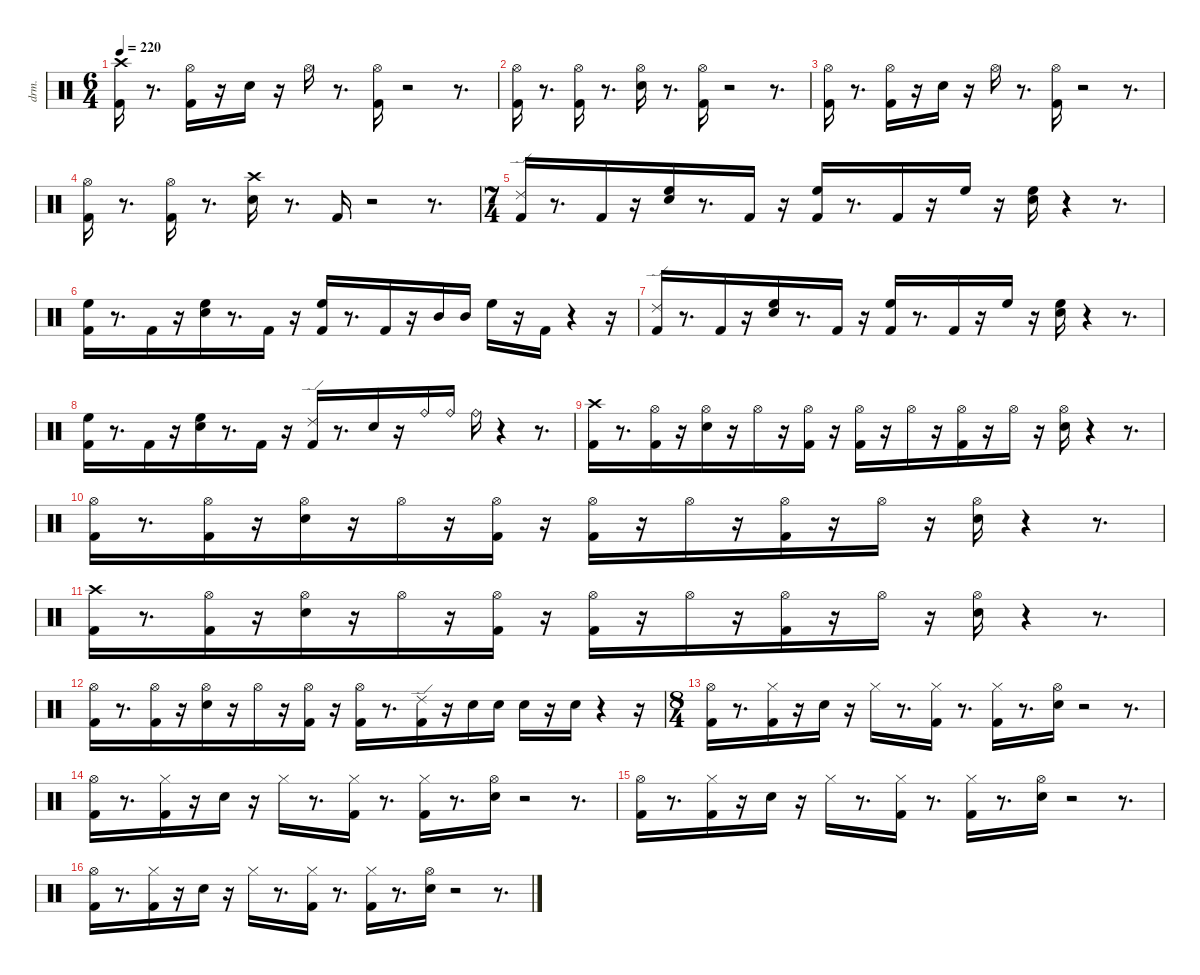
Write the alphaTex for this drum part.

\defaultSystemsLayout 4
\hideDynamics
\bracketExtendMode nobrackets
\otherSystemsTrackNameOrientation horizontal
\track ("EZdrummer 3" "drm.") {instrument percussion}
\staff {score}
\articulation defaults
\ts (6 4)
\tempo 220
\clef neutral
\ks c
("Kick (hit) 2" "Crash high (hit)"{acc #}).16{dy fff beam Down} r.8{d beam Down} ("Kick (hit) 2" "Hi-Hat (open)"{acc #}).16{dy ff beam Down} r.16{beam Down} "Snare (hit) 2".16{beam Down} r.16{beam Down} "Hi-Hat (open)"{acc #}.16{beam Down} r.8{d beam Down} ("Kick (hit) 2" "Hi-Hat (open)"{acc #}).16{beam Down} r.2{beam Down} r.8{d beam Down} |
("Kick (hit) 2" "Hi-Hat (open)"{acc #}).16{beam Down} r.8{d beam Down} ("Kick (hit) 2" "Hi-Hat (open)"{acc #}).16{beam Down} r.8{d beam Down} ("Snare (hit) 2" "Hi-Hat (open)"{acc #}).16{beam Down} r.8{d beam Down} ("Kick (hit) 2" "Hi-Hat (open)"{acc #}).16{dy mf beam Down} r.2{beam Down} r.8{d beam Down} |
("Kick (hit) 2" "Hi-Hat (open)"{acc #}).16{dy fff beam Down} r.8{d beam Down} ("Kick (hit) 2" "Hi-Hat (open)"{acc #}).16{dy ff beam Down} r.16{beam Down} "Snare (hit) 2".16{beam Down} r.16{beam Down} "Hi-Hat (open)"{acc #}.16{beam Down} r.8{d beam Down} ("Kick (hit) 2" "Hi-Hat (open)"{acc #}).16{beam Down} r.2{beam Down} r.8{d beam Down} |
("Kick (hit) 2" "Hi-Hat (open)"{acc #}).16{beam Down} r.8{d beam Down} ("Kick (hit) 2" "Hi-Hat (open)"{acc #}).16{beam Down} r.8{d beam Down} ("Snare (hit) 2" "Crash high (hit)"{acc #}).16{beam Down} r.8{d beam Down} "Kick (hit) 2".16{dy mf beam Up} r.2{beam Up} r.8{d beam Up} |
\ts (7 4)
\beaming (8 6 4 4)
("Kick (hit) 2" "Ride (edge) 2").16{dy ff beam Up} r.8{d beam Up} "Kick (hit) 2".16{dy f beam Up} r.16{beam Up} ("Snare (hit) 2" "High Floor Tom (hit)").16{dy ff beam Down} r.8{d beam Down} "Kick (hit) 2".16{dy f beam Up} r.16{beam Up} ("Kick (hit) 2" "High Floor Tom (hit)").16{dy ff beam Up} r.8{d beam Up} "Kick (hit) 2".16{dy f beam Up} r.16{beam Up} "High Floor Tom (hit)".16{dy p beam Down} r.16{beam Down} ("Snare (hit) 2" "High Floor Tom (hit)").16{dy ff beam Down} r.4{beam Down} r.8{d beam Down} |
("Kick (hit) 2" "High Floor Tom (hit)").16{beam Down} r.8{d beam Down} "Kick (hit) 2".16{dy f beam Up} r.16{beam Up} ("Snare (hit) 2" "High Floor Tom (hit)").16{dy ff beam Down} r.8{d beam Down} "Kick (hit) 2".16{dy f beam Up} r.16{beam Up} ("Kick (hit) 2" "High Floor Tom (hit)").16{dy ff beam Up} r.8{d beam Up} "Kick (hit) 2".16{dy f beam Up} r.16{beam Up} "Mid Tom (hit)".16{dy ff beam Up} "Mid Tom (hit)".16{dy mp beam Up} "High Floor Tom (hit)".16{dy ff beam Down} r.16{beam Down} "Kick (hit) 2".16{beam Up} r.4{beam Up} r.16{beam Up} |
("Kick (hit) 2" "Ride (edge) 2").16{beam Up} r.8{d beam Up} "Kick (hit) 2".16{dy f beam Up} r.16{beam Up} ("Snare (hit) 2" "High Floor Tom (hit)").16{dy ff beam Down} r.8{d beam Down} "Kick (hit) 2".16{dy f beam Up} r.16{beam Up} ("Kick (hit) 2" "High Floor Tom (hit)").16{dy ff beam Up} r.8{d beam Up} "Kick (hit) 2".16{dy f beam Up} r.16{beam Up} "High Floor Tom (hit)".16{dy mp beam Down} r.16{beam Down} ("Snare (hit) 2" "High Floor Tom (hit)").16{dy ff beam Down} r.4{beam Down} r.8{d beam Down} |
("Kick (hit) 2" "High Floor Tom (hit)").16{beam Down} r.8{d beam Down} "Kick (hit) 2".16{dy f beam Up} r.16{beam Up} ("Snare (hit) 2" "High Floor Tom (hit)").16{dy ff beam Down} r.8{d beam Down} "Kick (hit) 2".16{dy f beam Up} r.16{beam Up} ("Kick (hit) 2" "Ride (edge) 2").16{dy ff beam Up} r.8{d beam Up} "Snare (hit) 2".16{dy fff beam Down} r.16{beam Down} "Ride (bell)".16{dy mf beam Down} "Ride (bell)".16{dy mp beam Down} "Ride (bell)".16{dy ff beam Down} r.4{beam Down} r.8{d beam Down} |
("Kick (hit) 2" "Crash high (hit)"{acc #}).16{beam Down} r.8{d beam Down} ("Kick (hit) 2" "Hi-Hat (open)"{acc #}).16{dy f beam Down} r.16{beam Down} ("Snare (hit) 2" "Hi-Hat (open)"{acc #}).16{dy ff beam Down} r.16{beam Down} "Hi-Hat (open)"{acc #}.16{beam Down} r.16{beam Down} ("Kick (hit) 2" "Hi-Hat (open)"{acc #}).16{dy f beam Down} r.16{beam Down} ("Kick (hit) 2" "Hi-Hat (open)"{acc #}).16{dy ff beam Down} r.16{beam Down} "Hi-Hat (open)"{acc #}.16{dy pp beam Down} r.16{beam Down} ("Kick (hit) 2" "Hi-Hat (open)"{acc #}).16{dy f beam Down} r.16{beam Down} "Hi-Hat (open)"{acc #}.16{dy pp beam Down} r.16{beam Down} ("Snare (hit) 2" "Hi-Hat (open)"{acc #}).16{dy ff beam Down} r.4{beam Down} r.8{d beam Down} |
("Kick (hit) 2" "Hi-Hat (open)"{acc #}).16{beam Down} r.8{d beam Down} ("Kick (hit) 2" "Hi-Hat (open)"{acc #}).16{dy f beam Down} r.16{beam Down} ("Snare (hit) 2" "Hi-Hat (open)"{acc #}).16{dy ff beam Down} r.16{beam Down} "Hi-Hat (open)"{acc #}.16{beam Down} r.16{beam Down} ("Kick (hit) 2" "Hi-Hat (open)"{acc #}).16{dy f beam Down} r.16{beam Down} ("Kick (hit) 2" "Hi-Hat (open)"{acc #}).16{dy ff beam Down} r.16{beam Down} "Hi-Hat (open)"{acc #}.16{dy pp beam Down} r.16{beam Down} ("Kick (hit) 2" "Hi-Hat (open)"{acc #}).16{dy f beam Down} r.16{beam Down} "Hi-Hat (open)"{acc #}.16{dy pp beam Down} r.16{beam Down} ("Snare (hit) 2" "Hi-Hat (open)"{acc #}).16{dy ff beam Down} r.4{beam Down} r.8{d beam Down} |
("Kick (hit) 2" "Crash high (hit)"{acc #}).16{beam Down} r.8{d beam Down} ("Kick (hit) 2" "Hi-Hat (open)"{acc #}).16{dy f beam Down} r.16{beam Down} ("Snare (hit) 2" "Hi-Hat (open)"{acc #}).16{dy ff beam Down} r.16{beam Down} "Hi-Hat (open)"{acc #}.16{beam Down} r.16{beam Down} ("Kick (hit) 2" "Hi-Hat (open)"{acc #}).16{dy f beam Down} r.16{beam Down} ("Kick (hit) 2" "Hi-Hat (open)"{acc #}).16{dy ff beam Down} r.16{beam Down} "Hi-Hat (open)"{acc #}.16{dy pp beam Down} r.16{beam Down} ("Kick (hit) 2" "Hi-Hat (open)"{acc #}).16{dy f beam Down} r.16{beam Down} "Hi-Hat (open)"{acc #}.16{dy pp beam Down} r.16{beam Down} ("Snare (hit) 2" "Hi-Hat (open)"{acc #}).16{dy ff beam Down} r.4{beam Down} r.8{d beam Down} |
("Kick (hit) 2" "Hi-Hat (open)"{acc #}).16{beam Down} r.8{d beam Down} ("Kick (hit) 2" "Hi-Hat (open)"{acc #}).16{dy f beam Down} r.16{beam Down} ("Snare (hit) 2" "Hi-Hat (open)"{acc #}).16{dy ff beam Down} r.16{beam Down} "Hi-Hat (open)"{acc #}.16{beam Down} r.16{beam Down} ("Kick (hit) 2" "Hi-Hat (open)"{acc #}).16{dy f beam Down} r.16{beam Down} ("Kick (hit) 2" "Hi-Hat (open)"{acc #}).16{dy ff beam Down} r.8{d beam Down} ("Kick (hit) 2" "Ride (edge) 2").16{dy fff beam Up} r.16{beam Up} "Snare (hit) 2".16{dy mp beam Down} "Snare (hit) 2".16{dy pp beam Down} "Snare (hit) 2".16{dy f beam Down} r.16{beam Down} "Snare (hit) 2".16{dy fff beam Down} r.4{beam Down} r.16{beam Down} |
\ts (8 4)
\beaming (8 4 4 4 4)
("Kick (hit) 2" "Hi-Hat (open)"{acc #}).16{beam Down} r.8{d beam Down} ("Kick (hit) 2" "Hi-Hat (closed)"{acc #}).16{dy f beam Down} r.16{beam Down} "Snare (hit) 2".16{dy ff beam Down} r.16{beam Down} "Hi-Hat (closed)"{acc #}.16{beam Down} r.8{d beam Down} ("Kick (hit) 2" "Hi-Hat (closed)"{acc #}).16{beam Down} r.8{d beam Down} ("Kick (hit) 2" "Hi-Hat (closed)"{acc #}).16{dy f beam Down} r.8{d beam Down} ("Snare (hit) 2" "Hi-Hat (open)"{acc #}).16{dy ff beam Down} r.2{beam Down} r.8{d beam Down} |
("Kick (hit) 2" "Hi-Hat (open)"{acc #}).16{dy fff beam Down} r.8{d beam Down} ("Kick (hit) 2" "Hi-Hat (closed)"{acc #}).16{dy f beam Down} r.16{beam Down} "Snare (hit) 2".16{dy ff beam Down} r.16{beam Down} "Hi-Hat (closed)"{acc #}.16{beam Down} r.8{d beam Down} ("Kick (hit) 2" "Hi-Hat (closed)"{acc #}).16{beam Down} r.8{d beam Down} ("Kick (hit) 2" "Hi-Hat (closed)"{acc #}).16{dy f beam Down} r.8{d beam Down} ("Snare (hit) 2" "Hi-Hat (open)"{acc #}).16{dy ff beam Down} r.2{beam Down} r.8{d beam Down} |
("Kick (hit) 2" "Hi-Hat (open)"{acc #}).16{dy fff beam Down} r.8{d beam Down} ("Kick (hit) 2" "Hi-Hat (closed)"{acc #}).16{dy f beam Down} r.16{beam Down} "Snare (hit) 2".16{dy ff beam Down} r.16{beam Down} "Hi-Hat (closed)"{acc #}.16{beam Down} r.8{d beam Down} ("Kick (hit) 2" "Hi-Hat (closed)"{acc #}).16{beam Down} r.8{d beam Down} ("Kick (hit) 2" "Hi-Hat (closed)"{acc #}).16{dy f beam Down} r.8{d beam Down} ("Snare (hit) 2" "Hi-Hat (open)"{acc #}).16{dy ff beam Down} r.2{beam Down} r.8{d beam Down} |
("Kick (hit) 2" "Hi-Hat (open)"{acc #}).16{dy fff beam Down} r.8{d beam Down} ("Kick (hit) 2" "Hi-Hat (closed)"{acc #}).16{dy f beam Down} r.16{beam Down} "Snare (hit) 2".16{dy ff beam Down} r.16{beam Down} "Hi-Hat (closed)"{acc #}.16{beam Down} r.8{d beam Down} ("Kick (hit) 2" "Hi-Hat (closed)"{acc #}).16{beam Down} r.8{d beam Down} ("Kick (hit) 2" "Hi-Hat (closed)"{acc #}).16{dy f beam Down} r.8{d beam Down} ("Snare (hit) 2" "Hi-Hat (open)"{acc #}).16{dy ff beam Down} r.2{beam Down} r.8{d beam Down}
